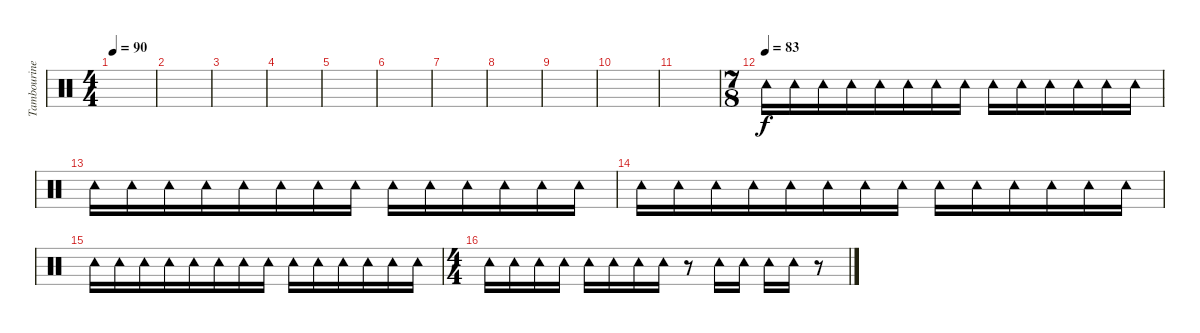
\track ("Tambourine" "Tambourine") {instrument percussion}
\staff {score}
\articulation defaults
\ts (4 4)
\tempo 90
\clef neutral
\ks c
|
|
|
|
|
|
|
|
|
|
|
\ts (7 8)
\tempo (83)
"Tambourine (hit)".16 "Tambourine (hit)".16 "Tambourine (hit)".16 "Tambourine (hit)".16 "Tambourine (hit)".16 "Tambourine (hit)".16 "Tambourine (hit)".16 "Tambourine (hit)".16 "Tambourine (hit)".16 "Tambourine (hit)".16 "Tambourine (hit)".16 "Tambourine (hit)".16 "Tambourine (hit)".16 "Tambourine (hit)".16 |
"Tambourine (hit)".16 "Tambourine (hit)".16 "Tambourine (hit)".16 "Tambourine (hit)".16 "Tambourine (hit)".16 "Tambourine (hit)".16 "Tambourine (hit)".16 "Tambourine (hit)".16 "Tambourine (hit)".16 "Tambourine (hit)".16 "Tambourine (hit)".16 "Tambourine (hit)".16 "Tambourine (hit)".16 "Tambourine (hit)".16 |
"Tambourine (hit)".16 "Tambourine (hit)".16 "Tambourine (hit)".16 "Tambourine (hit)".16 "Tambourine (hit)".16 "Tambourine (hit)".16 "Tambourine (hit)".16 "Tambourine (hit)".16 "Tambourine (hit)".16 "Tambourine (hit)".16 "Tambourine (hit)".16 "Tambourine (hit)".16 "Tambourine (hit)".16 "Tambourine (hit)".16 |
"Tambourine (hit)".16 "Tambourine (hit)".16 "Tambourine (hit)".16 "Tambourine (hit)".16 "Tambourine (hit)".16 "Tambourine (hit)".16 "Tambourine (hit)".16 "Tambourine (hit)".16 "Tambourine (hit)".16 "Tambourine (hit)".16 "Tambourine (hit)".16 "Tambourine (hit)".16 "Tambourine (hit)".16 "Tambourine (hit)".16 |
\ts (4 4)
"Tambourine (hit)".16 "Tambourine (hit)".16 "Tambourine (hit)".16 "Tambourine (hit)".16 "Tambourine (hit)".16 "Tambourine (hit)".16 "Tambourine (hit)".16 "Tambourine (hit)".16 r.8 "Tambourine (hit)".16 "Tambourine (hit)".16 "Tambourine (hit)".16 "Tambourine (hit)".16 r.8
